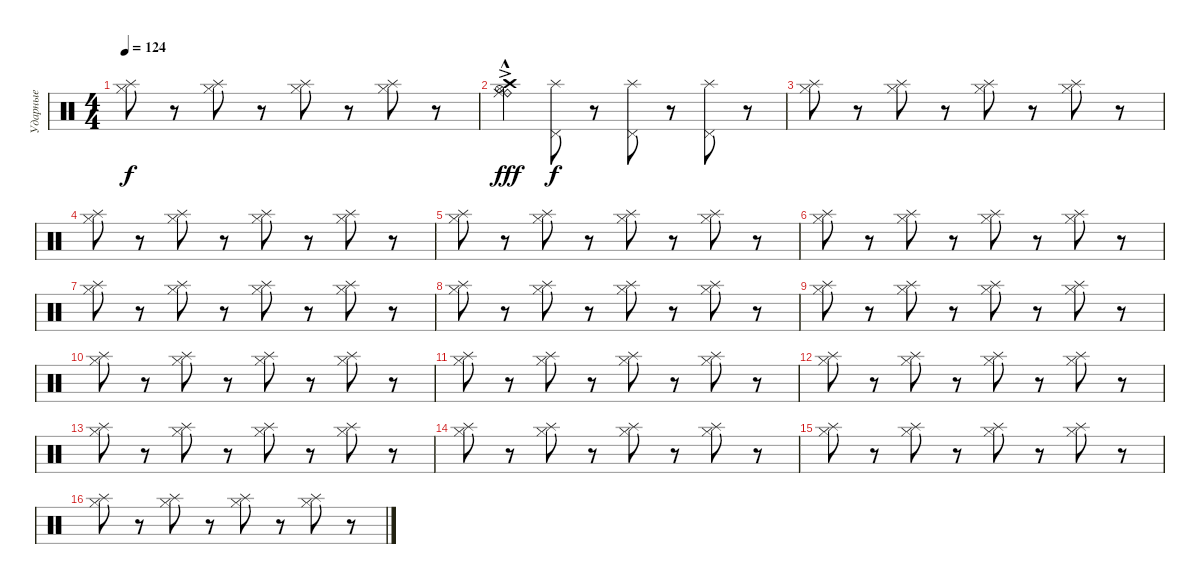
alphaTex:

\track ("Ударные" "Ударные") {instrument percussion}
\staff {score}
\articulation defaults
\ts (4 4)
\tempo 124
\clef neutral
\ks c
("Hi-Hat (closed)" "Splash (hit)").8{dy f} r.8 ("Hi-Hat (closed)" "Splash (hit)").8 r.8 ("Hi-Hat (closed)" "Splash (hit)").8 r.8 ("Hi-Hat (closed)" "Splash (hit)").8 r.8 |
("Ride (bell)"{ac} "Ride (middle)"{hac} "Crash high (hit)" "Hi-Hat (open)").4{dy fff} ("Pedal Hi-Hat (hit)" "Splash (hit)").8{dy f} r.8 ("Pedal Hi-Hat (hit)" "Splash (hit)").8 r.8 ("Pedal Hi-Hat (hit)" "Splash (hit)").8 r.8 |
("Hi-Hat (closed)" "Splash (hit)").8 r.8 ("Hi-Hat (closed)" "Splash (hit)").8 r.8 ("Hi-Hat (closed)" "Splash (hit)").8 r.8 ("Hi-Hat (closed)" "Splash (hit)").8 r.8 |
("Hi-Hat (closed)" "Splash (hit)").8 r.8 ("Hi-Hat (closed)" "Splash (hit)").8 r.8 ("Hi-Hat (closed)" "Splash (hit)").8 r.8 ("Hi-Hat (closed)" "Splash (hit)").8 r.8 |
("Hi-Hat (closed)" "Splash (hit)").8 r.8 ("Hi-Hat (closed)" "Splash (hit)").8 r.8 ("Hi-Hat (closed)" "Splash (hit)").8 r.8 ("Hi-Hat (closed)" "Splash (hit)").8 r.8 |
("Hi-Hat (closed)" "Splash (hit)").8 r.8 ("Hi-Hat (closed)" "Splash (hit)").8 r.8 ("Hi-Hat (closed)" "Splash (hit)").8 r.8 ("Hi-Hat (closed)" "Splash (hit)").8 r.8 |
("Hi-Hat (closed)" "Splash (hit)").8 r.8 ("Hi-Hat (closed)" "Splash (hit)").8 r.8 ("Hi-Hat (closed)" "Splash (hit)").8 r.8 ("Hi-Hat (closed)" "Splash (hit)").8 r.8 |
("Hi-Hat (closed)" "Splash (hit)").8 r.8 ("Hi-Hat (closed)" "Splash (hit)").8 r.8 ("Hi-Hat (closed)" "Splash (hit)").8 r.8 ("Hi-Hat (closed)" "Splash (hit)").8 r.8 |
("Hi-Hat (closed)" "Splash (hit)").8 r.8 ("Hi-Hat (closed)" "Splash (hit)").8 r.8 ("Hi-Hat (closed)" "Splash (hit)").8 r.8 ("Hi-Hat (closed)" "Splash (hit)").8 r.8 |
("Hi-Hat (closed)" "Splash (hit)").8 r.8 ("Hi-Hat (closed)" "Splash (hit)").8 r.8 ("Hi-Hat (closed)" "Splash (hit)").8 r.8 ("Hi-Hat (closed)" "Splash (hit)").8 r.8 |
("Hi-Hat (closed)" "Splash (hit)").8 r.8 ("Hi-Hat (closed)" "Splash (hit)").8 r.8 ("Hi-Hat (closed)" "Splash (hit)").8 r.8 ("Hi-Hat (closed)" "Splash (hit)").8 r.8 |
("Hi-Hat (closed)" "Splash (hit)").8 r.8 ("Hi-Hat (closed)" "Splash (hit)").8 r.8 ("Hi-Hat (closed)" "Splash (hit)").8 r.8 ("Hi-Hat (closed)" "Splash (hit)").8 r.8 |
("Hi-Hat (closed)" "Splash (hit)").8 r.8 ("Hi-Hat (closed)" "Splash (hit)").8 r.8 ("Hi-Hat (closed)" "Splash (hit)").8 r.8 ("Hi-Hat (closed)" "Splash (hit)").8 r.8 |
("Hi-Hat (closed)" "Splash (hit)").8 r.8 ("Hi-Hat (closed)" "Splash (hit)").8 r.8 ("Hi-Hat (closed)" "Splash (hit)").8 r.8 ("Hi-Hat (closed)" "Splash (hit)").8 r.8 |
("Hi-Hat (closed)" "Splash (hit)").8 r.8 ("Hi-Hat (closed)" "Splash (hit)").8 r.8 ("Hi-Hat (closed)" "Splash (hit)").8 r.8 ("Hi-Hat (closed)" "Splash (hit)").8 r.8 |
("Hi-Hat (closed)" "Splash (hit)").8 r.8 ("Hi-Hat (closed)" "Splash (hit)").8 r.8 ("Hi-Hat (closed)" "Splash (hit)").8 r.8 ("Hi-Hat (closed)" "Splash (hit)").8 r.8
